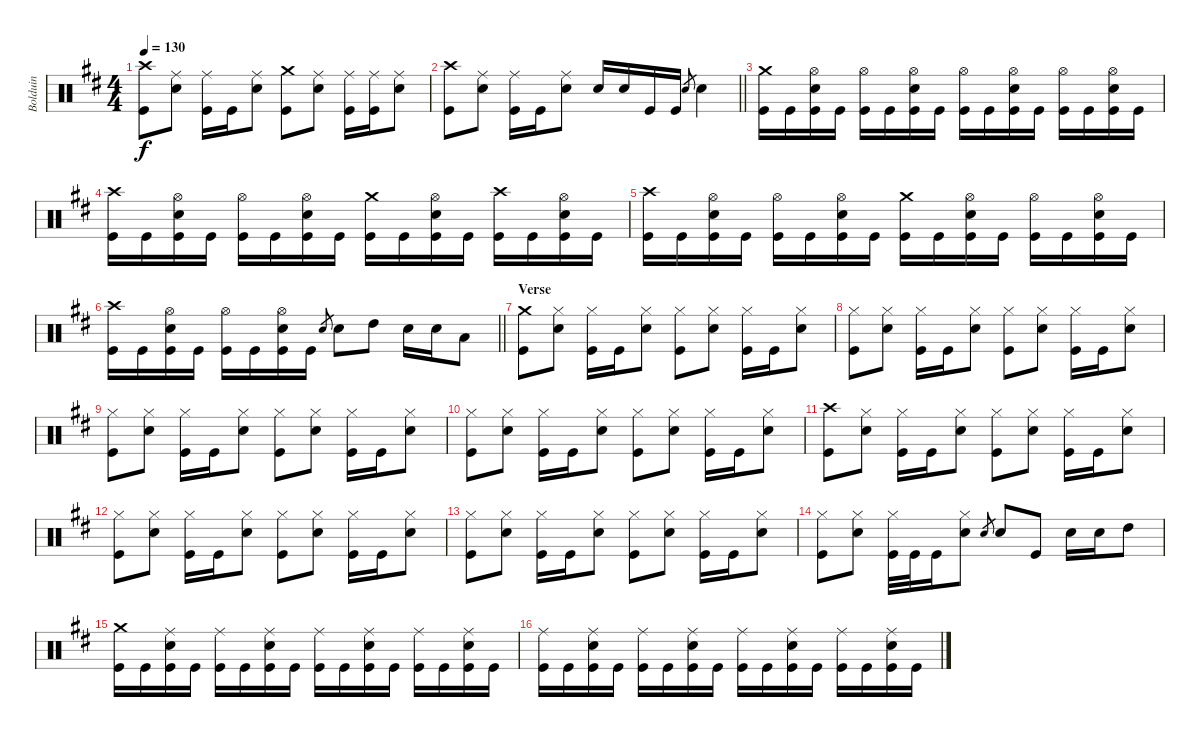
\track ("Bolduin" "Bolduin") {instrument percussion}
\staff {score}
\articulation defaults
\ts (4 4)
\tempo 130
\clef neutral
\ks bminor
("Crash high (hit)" "Kick (hit)").8{dy f} ("Ride (middle)" "Snare (hit) 2").8 ("Ride (middle)" "Kick (hit)").16 "Kick (hit)".16 ("Ride (middle)" "Snare (hit) 2").8 ("Crash medium (hit)" "Kick (hit)").8 ("Ride (middle)" "Snare (hit) 2").8 ("Ride (middle)" "Kick (hit)").16 ("Ride (middle)" "Kick (hit)").16 ("Ride (middle)" "Snare (hit) 2").8 |
\barLineRight lightlight
("Crash high (hit)" "Kick (hit)").8 ("Ride (middle)" "Snare (hit) 2").8 ("Ride (middle)" "Kick (hit)").16 "Kick (hit)".16 ("Ride (middle)" "Snare (hit) 2").8 "Snare (hit) 2".16 "Snare (hit) 2".16 "Kick (hit)".16 "Kick (hit)".16 "Snare (hit) 2".8{gr} "Snare (hit) 2".4 |
("Kick (hit)" "Crash medium (hit)").16 "Kick (hit)".16 ("Kick (hit)" "Hi-Hat (open)" "Snare (hit) 2").16 "Kick (hit)".16 ("Kick (hit)" "Hi-Hat (open)").16 "Kick (hit)".16 ("Kick (hit)" "Hi-Hat (open)" "Snare (hit) 2").16 "Kick (hit)".16 ("Kick (hit)" "Hi-Hat (open)").16 "Kick (hit)".16 ("Kick (hit)" "Hi-Hat (open)" "Snare (hit) 2").16 "Kick (hit)".16 ("Kick (hit)" "Hi-Hat (open)").16 "Kick (hit)".16 ("Kick (hit)" "Hi-Hat (open)" "Snare (hit) 2").16 "Kick (hit)".16 |
("Kick (hit)" "Crash high (hit)").16 "Kick (hit)".16 ("Kick (hit)" "Hi-Hat (open)" "Snare (hit) 2").16 "Kick (hit)".16 ("Kick (hit)" "Hi-Hat (open)").16 "Kick (hit)".16 ("Kick (hit)" "Hi-Hat (open)" "Snare (hit) 2").16 "Kick (hit)".16 ("Kick (hit)" "Crash medium (hit)").16 "Kick (hit)".16 ("Kick (hit)" "Hi-Hat (open)" "Snare (hit) 2").16 "Kick (hit)".16 ("Kick (hit)" "Crash high (hit)").16 "Kick (hit)".16 ("Kick (hit)" "Hi-Hat (open)" "Snare (hit) 2").16 "Kick (hit)".16 |
("Kick (hit)" "Crash high (hit)").16 "Kick (hit)".16 ("Kick (hit)" "Hi-Hat (open)" "Snare (hit) 2").16 "Kick (hit)".16 ("Kick (hit)" "Hi-Hat (open)").16 "Kick (hit)".16 ("Kick (hit)" "Hi-Hat (open)" "Snare (hit) 2").16 "Kick (hit)".16 ("Kick (hit)" "Crash medium (hit)").16 "Kick (hit)".16 ("Kick (hit)" "Hi-Hat (open)" "Snare (hit) 2").16 "Kick (hit)".16 ("Kick (hit)" "Hi-Hat (open)").16 "Kick (hit)".16 ("Kick (hit)" "Hi-Hat (open)" "Snare (hit) 2").16 "Kick (hit)".16 |
\barLineRight lightlight
("Kick (hit)" "Crash high (hit)").16 "Kick (hit)".16 ("Kick (hit)" "Hi-Hat (open)" "Snare (hit) 2").16 "Kick (hit)".16 ("Kick (hit)" "Hi-Hat (open)").16 "Kick (hit)".16 ("Kick (hit)" "Hi-Hat (open)" "Snare (hit) 2").16 "Kick (hit)".16 "Snare (hit) 2".8{gr} "Snare (hit) 2".8 "High Tom (hit)".8 "Snare (hit) 2".16 "Snare (hit) 2".16 "Low Tom (hit)".8 |
\section ("" "Verse")
("Crash medium (hit)" "Kick (hit)").8 ("Hi-Hat (closed)" "Snare (hit) 2").8 ("Hi-Hat (closed)" "Kick (hit)").16 "Kick (hit)".16 ("Hi-Hat (closed)" "Snare (hit) 2").8 ("Hi-Hat (closed)" "Kick (hit)").8 ("Hi-Hat (closed)" "Snare (hit) 2").8 ("Hi-Hat (closed)" "Kick (hit)").16 "Kick (hit)".16 ("Hi-Hat (closed)" "Snare (hit) 2").8 |
("Hi-Hat (closed)" "Kick (hit)").8 ("Hi-Hat (closed)" "Snare (hit) 2").8 ("Hi-Hat (closed)" "Kick (hit)").16 "Kick (hit)".16 ("Hi-Hat (closed)" "Snare (hit) 2").8 ("Hi-Hat (closed)" "Kick (hit)").8 ("Hi-Hat (closed)" "Snare (hit) 2").8 ("Hi-Hat (closed)" "Kick (hit)").16 "Kick (hit)".16 ("Hi-Hat (closed)" "Snare (hit) 2").8 |
("Hi-Hat (closed)" "Kick (hit)").8 ("Hi-Hat (closed)" "Snare (hit) 2").8 ("Hi-Hat (closed)" "Kick (hit)").16 "Kick (hit)".16 ("Hi-Hat (closed)" "Snare (hit) 2").8 ("Hi-Hat (closed)" "Kick (hit)").8 ("Hi-Hat (closed)" "Snare (hit) 2").8 ("Hi-Hat (closed)" "Kick (hit)").16 "Kick (hit)".16 ("Hi-Hat (closed)" "Snare (hit) 2").8 |
("Hi-Hat (closed)" "Kick (hit)").8 ("Hi-Hat (closed)" "Snare (hit) 2").8 ("Hi-Hat (closed)" "Kick (hit)").16 "Kick (hit)".16 ("Hi-Hat (closed)" "Snare (hit) 2").8 ("Hi-Hat (closed)" "Kick (hit)").8 ("Hi-Hat (closed)" "Snare (hit) 2").8 ("Hi-Hat (closed)" "Kick (hit)").16 "Kick (hit)".16 ("Hi-Hat (closed)" "Snare (hit) 2").8 |
("Crash high (hit)" "Kick (hit)").8 ("Hi-Hat (closed)" "Snare (hit) 2").8 ("Hi-Hat (closed)" "Kick (hit)").16 "Kick (hit)".16 ("Hi-Hat (closed)" "Snare (hit) 2").8 ("Hi-Hat (closed)" "Kick (hit)").8 ("Hi-Hat (closed)" "Snare (hit) 2").8 ("Hi-Hat (closed)" "Kick (hit)").16 "Kick (hit)".16 ("Hi-Hat (closed)" "Snare (hit) 2").8 |
("Hi-Hat (closed)" "Kick (hit)").8 ("Hi-Hat (closed)" "Snare (hit) 2").8 ("Hi-Hat (closed)" "Kick (hit)").16 "Kick (hit)".16 ("Hi-Hat (closed)" "Snare (hit) 2").8 ("Hi-Hat (closed)" "Kick (hit)").8 ("Hi-Hat (closed)" "Snare (hit) 2").8 ("Hi-Hat (closed)" "Kick (hit)").16 "Kick (hit)".16 ("Hi-Hat (closed)" "Snare (hit) 2").8 |
("Hi-Hat (closed)" "Kick (hit)").8 ("Hi-Hat (closed)" "Snare (hit) 2").8 ("Hi-Hat (closed)" "Kick (hit)").16 "Kick (hit)".16 ("Hi-Hat (closed)" "Snare (hit) 2").8 ("Hi-Hat (closed)" "Kick (hit)").8 ("Hi-Hat (closed)" "Snare (hit) 2").8 ("Hi-Hat (closed)" "Kick (hit)").16 "Kick (hit)".16 ("Hi-Hat (closed)" "Snare (hit) 2").8 |
("Kick (hit)" "Hi-Hat (closed)").8 ("Snare (hit) 2" "Hi-Hat (closed)").8 ("Kick (hit)" "Hi-Hat (closed)").32 "Kick (hit)".32 "Kick (hit)".16 ("Snare (hit) 2" "Hi-Hat (closed)").8 "Snare (hit) 2".8{gr} "Snare (hit) 2".8 "Kick (hit)".8 "Snare (hit) 2".16 "Snare (hit) 2".16 "High Tom (hit)".8 |
("Kick (hit)" "Crash medium (hit)").16 "Kick (hit)".16 ("Kick (hit)" "Ride (middle)" "Snare (hit) 2").16 "Kick (hit)".16 ("Kick (hit)" "Ride (middle)").16 "Kick (hit)".16 ("Kick (hit)" "Ride (middle)" "Snare (hit) 2").16 "Kick (hit)".16 ("Kick (hit)" "Ride (middle)").16 "Kick (hit)".16 ("Kick (hit)" "Ride (middle)" "Snare (hit) 2").16 "Kick (hit)".16 ("Kick (hit)" "Ride (middle)").16 "Kick (hit)".16 ("Kick (hit)" "Ride (middle)" "Snare (hit) 2").16 "Kick (hit)".16 |
("Kick (hit)" "Ride (middle)").16 "Kick (hit)".16 ("Kick (hit)" "Ride (middle)" "Snare (hit) 2").16 "Kick (hit)".16 ("Kick (hit)" "Ride (middle)").16 "Kick (hit)".16 ("Kick (hit)" "Ride (middle)" "Snare (hit) 2").16 "Kick (hit)".16 ("Kick (hit)" "Ride (middle)").16 "Kick (hit)".16 ("Kick (hit)" "Ride (middle)" "Snare (hit) 2").16 "Kick (hit)".16 ("Kick (hit)" "Ride (middle)").16 "Kick (hit)".16 ("Kick (hit)" "Ride (middle)" "Snare (hit) 2").16 "Kick (hit)".16
